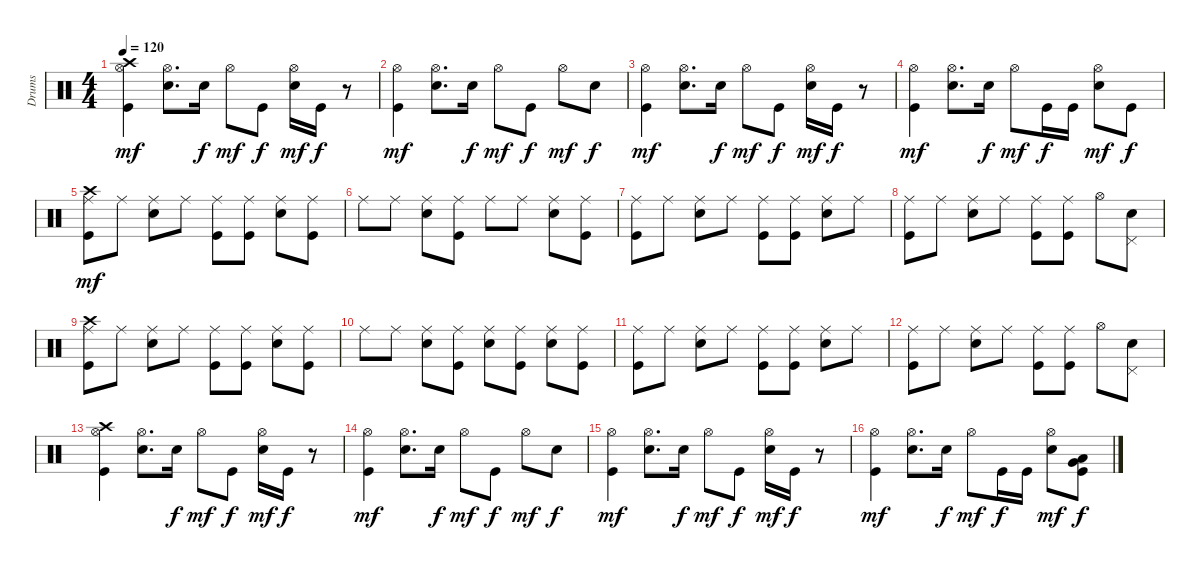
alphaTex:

\track ("Drums" "Drums") {instrument percussion}
\staff {score}
\articulation defaults
\ts (4 4)
\tempo 120
\clef neutral
\ks c
("Crash high (hit)" "Hi-Hat (open)" "Kick (hit)").4{dy mf} ("Hi-Hat (open)" "Electric Snare (hit)").8{d} "Electric Snare (hit)".16{dy f} "Hi-Hat (open)".8{dy mf} "Kick (hit)".8{dy f} ("Hi-Hat (open)" "Electric Snare (hit)").16{dy mf} "Kick (hit)".16{dy f} r.8 |
("Hi-Hat (open)" "Kick (hit)").4{dy mf} ("Hi-Hat (open)" "Electric Snare (hit)").8{d} "Electric Snare (hit)".16{dy f} "Hi-Hat (open)".8{dy mf} "Kick (hit)".8{dy f} "Hi-Hat (open)".8{dy mf} "Electric Snare (hit)".8{dy f} |
("Hi-Hat (open)" "Kick (hit)").4{dy mf} ("Hi-Hat (open)" "Electric Snare (hit)").8{d} "Electric Snare (hit)".16{dy f} "Hi-Hat (open)".8{dy mf} "Kick (hit)".8{dy f} ("Hi-Hat (open)" "Electric Snare (hit)").16{dy mf} "Kick (hit)".16{dy f} r.8 |
("Hi-Hat (open)" "Kick (hit)").4{dy mf} ("Hi-Hat (open)" "Electric Snare (hit)").8{d} "Electric Snare (hit)".16{dy f} "Hi-Hat (open)".8{dy mf} "Kick (hit)".16{dy f} "Kick (hit)".16 ("Hi-Hat (open)" "Electric Snare (hit)").8{dy mf} "Kick (hit)".8{dy f} |
("Crash high (hit)" "Ride (middle)" "Kick (hit)").8{dy mf} "Ride (middle)".8 ("Ride (middle)" "Electric Snare (hit)").8 "Ride (middle)".8 ("Ride (middle)" "Kick (hit)").8 ("Ride (middle)" "Kick (hit)").8 ("Ride (middle)" "Electric Snare (hit)").8 ("Ride (middle)" "Kick (hit)").8 |
"Ride (middle)".8 "Ride (middle)".8 ("Ride (middle)" "Electric Snare (hit)").8 ("Ride (middle)" "Kick (hit)").8 "Ride (middle)".8 "Ride (middle)".8 ("Ride (middle)" "Electric Snare (hit)").8 ("Ride (middle)" "Kick (hit)").8 |
("Ride (middle)" "Kick (hit)").8 "Ride (middle)".8 ("Ride (middle)" "Electric Snare (hit)").8 "Ride (middle)".8 ("Ride (middle)" "Kick (hit)").8 ("Ride (middle)" "Kick (hit)").8 ("Ride (middle)" "Electric Snare (hit)").8 "Ride (middle)".8 |
("Ride (middle)" "Kick (hit)").8 "Ride (middle)".8 ("Ride (middle)" "Electric Snare (hit)").8 "Ride (middle)".8 ("Ride (middle)" "Kick (hit)").8 ("Ride (middle)" "Kick (hit)").8 "Hi-Hat (open)".8 ("Pedal Hi-Hat (hit)" "Electric Snare (hit)").8 |
("Crash high (hit)" "Ride (middle)" "Kick (hit)").8 "Ride (middle)".8 ("Ride (middle)" "Electric Snare (hit)").8 "Ride (middle)".8 ("Ride (middle)" "Kick (hit)").8 ("Ride (middle)" "Kick (hit)").8 ("Ride (middle)" "Electric Snare (hit)").8 ("Ride (middle)" "Kick (hit)").8 |
"Ride (middle)".8 "Ride (middle)".8 ("Ride (middle)" "Electric Snare (hit)").8 ("Ride (middle)" "Kick (hit)").8 ("Ride (middle)" "Electric Snare (hit)").8 ("Ride (middle)" "Kick (hit)").8 ("Ride (middle)" "Electric Snare (hit)").8 ("Ride (middle)" "Kick (hit)").8 |
("Ride (middle)" "Kick (hit)").8 "Ride (middle)".8 ("Ride (middle)" "Electric Snare (hit)").8 "Ride (middle)".8 ("Ride (middle)" "Kick (hit)").8 ("Ride (middle)" "Kick (hit)").8 ("Ride (middle)" "Electric Snare (hit)").8 "Ride (middle)".8 |
("Ride (middle)" "Kick (hit)").8 "Ride (middle)".8 ("Ride (middle)" "Electric Snare (hit)").8 "Ride (middle)".8 ("Ride (middle)" "Kick (hit)").8 ("Ride (middle)" "Kick (hit)").8 "Hi-Hat (open)".8 ("Pedal Hi-Hat (hit)" "Electric Snare (hit)").8 |
("Crash high (hit)" "Hi-Hat (open)" "Kick (hit)").4 ("Hi-Hat (open)" "Electric Snare (hit)").8{d} "Electric Snare (hit)".16{dy f} "Hi-Hat (open)".8{dy mf} "Kick (hit)".8{dy f} ("Hi-Hat (open)" "Electric Snare (hit)").16{dy mf} "Kick (hit)".16{dy f} r.8 |
("Hi-Hat (open)" "Kick (hit)").4{dy mf} ("Hi-Hat (open)" "Electric Snare (hit)").8{d} "Electric Snare (hit)".16{dy f} "Hi-Hat (open)".8{dy mf} "Kick (hit)".8{dy f} "Hi-Hat (open)".8{dy mf} "Electric Snare (hit)".8{dy f} |
("Hi-Hat (open)" "Kick (hit)").4{dy mf} ("Hi-Hat (open)" "Electric Snare (hit)").8{d} "Electric Snare (hit)".16{dy f} "Hi-Hat (open)".8{dy mf} "Kick (hit)".8{dy f} ("Hi-Hat (open)" "Electric Snare (hit)").16{dy mf} "Kick (hit)".16{dy f} r.8 |
("Hi-Hat (open)" "Kick (hit)").4{dy mf} ("Hi-Hat (open)" "Electric Snare (hit)").8{d} "Electric Snare (hit)".16{dy f} "Hi-Hat (open)".8{dy mf} "Kick (hit)".16{dy f} "Kick (hit)".16 ("Hi-Hat (open)" "Electric Snare (hit)").8{dy mf} ("Very Low Tom (hit)" "Low Floor Tom (hit)" "Kick (hit)").8{dy f}
